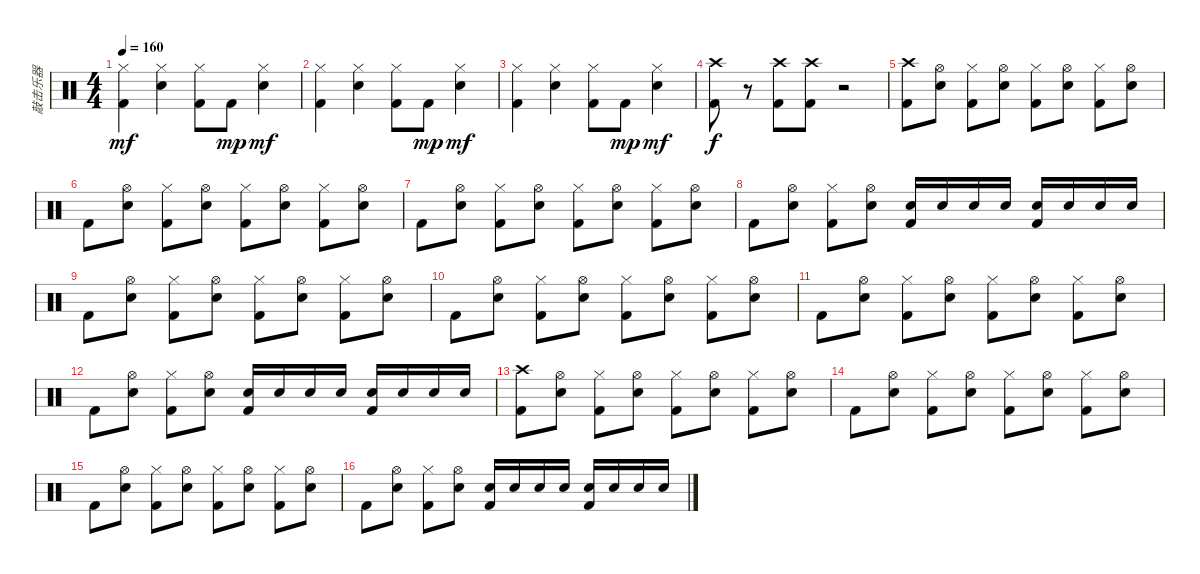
\track ("敲击乐器" "敲击乐器") {instrument percussion}
\staff {score}
\articulation defaults
\ts (4 4)
\tempo 160
\clef neutral
\ks c
("Hi-Hat (closed)" "Kick (hit) 2").4{dy mf} ("Snare (hit) 2" "Hi-Hat (closed)").4 ("Hi-Hat (closed)" "Kick (hit) 2").8 "Kick (hit) 2".8{dy mp} ("Snare (hit) 2" "Hi-Hat (closed)").4{dy mf} |
("Hi-Hat (closed)" "Kick (hit) 2").4 ("Snare (hit) 2" "Hi-Hat (closed)").4 ("Hi-Hat (closed)" "Kick (hit) 2").8 "Kick (hit) 2".8{dy mp} ("Snare (hit) 2" "Hi-Hat (closed)").4{dy mf} |
("Hi-Hat (closed)" "Kick (hit) 2").4 ("Snare (hit) 2" "Hi-Hat (closed)").4 ("Hi-Hat (closed)" "Kick (hit) 2").8 "Kick (hit) 2".8{dy mp} ("Snare (hit) 2" "Hi-Hat (closed)").4{dy mf} |
("Crash high (hit)" "Kick (hit) 2").8{dy f} r.8 ("Crash high (hit)" "Kick (hit) 2").8 ("Crash high (hit)" "Kick (hit) 2").8 r.2 |
("Crash high (hit)" "Kick (hit) 2").8 ("Hi-Hat (open)" "Electric Snare (hit)").8 ("Hi-Hat (closed)" "Kick (hit) 2").8 ("Hi-Hat (open)" "Electric Snare (hit)").8 ("Hi-Hat (closed)" "Kick (hit) 2").8 ("Hi-Hat (open)" "Electric Snare (hit)").8 ("Hi-Hat (closed)" "Kick (hit) 2").8 ("Hi-Hat (open)" "Electric Snare (hit)").8 |
"Kick (hit) 2".8 ("Hi-Hat (open)" "Electric Snare (hit)").8 ("Hi-Hat (closed)" "Kick (hit) 2").8 ("Hi-Hat (open)" "Electric Snare (hit)").8 ("Hi-Hat (closed)" "Kick (hit) 2").8 ("Hi-Hat (open)" "Electric Snare (hit)").8 ("Hi-Hat (closed)" "Kick (hit) 2").8 ("Hi-Hat (open)" "Electric Snare (hit)").8 |
"Kick (hit) 2".8 ("Hi-Hat (open)" "Electric Snare (hit)").8 ("Hi-Hat (closed)" "Kick (hit) 2").8 ("Hi-Hat (open)" "Electric Snare (hit)").8 ("Hi-Hat (closed)" "Kick (hit) 2").8 ("Hi-Hat (open)" "Electric Snare (hit)").8 ("Hi-Hat (closed)" "Kick (hit) 2").8 ("Hi-Hat (open)" "Electric Snare (hit)").8 |
"Kick (hit) 2".8 ("Hi-Hat (open)" "Electric Snare (hit)").8 ("Hi-Hat (closed)" "Kick (hit) 2").8 ("Hi-Hat (open)" "Electric Snare (hit)").8 ("Electric Snare (hit)" "Kick (hit) 2").16 "Electric Snare (hit)".16 "Electric Snare (hit)".16 "Electric Snare (hit)".16 ("Electric Snare (hit)" "Kick (hit) 2").16 "Electric Snare (hit)".16 "Electric Snare (hit)".16 "Electric Snare (hit)".16 |
"Kick (hit) 2".8 ("Hi-Hat (open)" "Electric Snare (hit)").8 ("Hi-Hat (closed)" "Kick (hit) 2").8 ("Hi-Hat (open)" "Electric Snare (hit)").8 ("Hi-Hat (closed)" "Kick (hit) 2").8 ("Hi-Hat (open)" "Electric Snare (hit)").8 ("Hi-Hat (closed)" "Kick (hit) 2").8 ("Hi-Hat (open)" "Electric Snare (hit)").8 |
"Kick (hit) 2".8 ("Hi-Hat (open)" "Electric Snare (hit)").8 ("Hi-Hat (closed)" "Kick (hit) 2").8 ("Hi-Hat (open)" "Electric Snare (hit)").8 ("Hi-Hat (closed)" "Kick (hit) 2").8 ("Hi-Hat (open)" "Electric Snare (hit)").8 ("Hi-Hat (closed)" "Kick (hit) 2").8 ("Hi-Hat (open)" "Electric Snare (hit)").8 |
"Kick (hit) 2".8 ("Hi-Hat (open)" "Electric Snare (hit)").8 ("Hi-Hat (closed)" "Kick (hit) 2").8 ("Hi-Hat (open)" "Electric Snare (hit)").8 ("Hi-Hat (closed)" "Kick (hit) 2").8 ("Hi-Hat (open)" "Electric Snare (hit)").8 ("Hi-Hat (closed)" "Kick (hit) 2").8 ("Hi-Hat (open)" "Electric Snare (hit)").8 |
"Kick (hit) 2".8 ("Hi-Hat (open)" "Electric Snare (hit)").8 ("Hi-Hat (closed)" "Kick (hit) 2").8 ("Hi-Hat (open)" "Electric Snare (hit)").8 ("Electric Snare (hit)" "Kick (hit) 2").16 "Electric Snare (hit)".16 "Electric Snare (hit)".16 "Electric Snare (hit)".16 ("Electric Snare (hit)" "Kick (hit) 2").16 "Electric Snare (hit)".16 "Electric Snare (hit)".16 "Electric Snare (hit)".16 |
("Crash high (hit)" "Kick (hit) 2").8 ("Hi-Hat (open)" "Electric Snare (hit)").8 ("Hi-Hat (closed)" "Kick (hit) 2").8 ("Hi-Hat (open)" "Electric Snare (hit)").8 ("Hi-Hat (closed)" "Kick (hit) 2").8 ("Hi-Hat (open)" "Electric Snare (hit)").8 ("Hi-Hat (closed)" "Kick (hit) 2").8 ("Hi-Hat (open)" "Electric Snare (hit)").8 |
"Kick (hit) 2".8 ("Hi-Hat (open)" "Electric Snare (hit)").8 ("Hi-Hat (closed)" "Kick (hit) 2").8 ("Hi-Hat (open)" "Electric Snare (hit)").8 ("Hi-Hat (closed)" "Kick (hit) 2").8 ("Hi-Hat (open)" "Electric Snare (hit)").8 ("Hi-Hat (closed)" "Kick (hit) 2").8 ("Hi-Hat (open)" "Electric Snare (hit)").8 |
"Kick (hit) 2".8 ("Hi-Hat (open)" "Electric Snare (hit)").8 ("Hi-Hat (closed)" "Kick (hit) 2").8 ("Hi-Hat (open)" "Electric Snare (hit)").8 ("Hi-Hat (closed)" "Kick (hit) 2").8 ("Hi-Hat (open)" "Electric Snare (hit)").8 ("Hi-Hat (closed)" "Kick (hit) 2").8 ("Hi-Hat (open)" "Electric Snare (hit)").8 |
"Kick (hit) 2".8 ("Hi-Hat (open)" "Electric Snare (hit)").8 ("Hi-Hat (closed)" "Kick (hit) 2").8 ("Hi-Hat (open)" "Electric Snare (hit)").8 ("Electric Snare (hit)" "Kick (hit) 2").16 "Electric Snare (hit)".16 "Electric Snare (hit)".16 "Electric Snare (hit)".16 ("Electric Snare (hit)" "Kick (hit) 2").16 "Electric Snare (hit)".16 "Electric Snare (hit)".16 "Electric Snare (hit)".16
